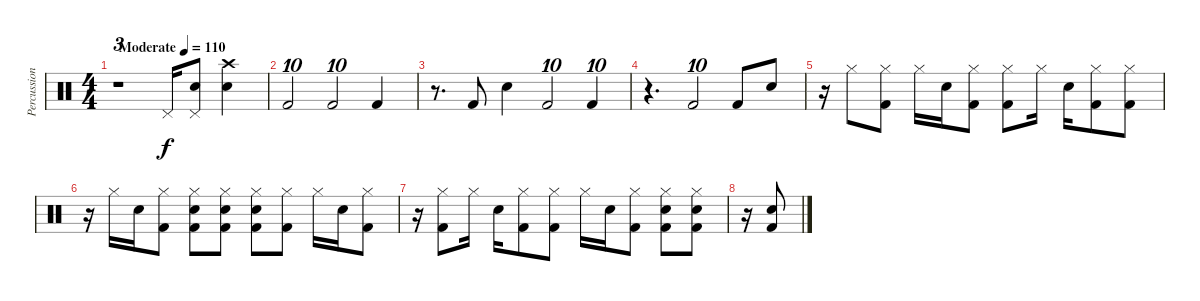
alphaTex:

\track ("Percussion" "Percussion") {instrument percussion}
\staff {score}
\articulation defaults
\ts (4 4)
\tempo (110 "Moderate")
\clef neutral
\ks c
r.1{tu (3 2) dy f} "Pedal Hi-Hat (hit)".16 ("Electric Snare (hit)" "Pedal Hi-Hat (hit)").8 ("Electric Snare (hit)" "Crash high (hit)").4 |
"Kick (hit) 2".2{tu (10 8)} "Kick (hit) 2".2{tu (10 8)} "Kick (hit) 2".4 |
r.8{d} "Kick (hit) 2".8 "Electric Snare (hit)".4 "Kick (hit) 2".2{tu (10 8)} "Kick (hit) 2".4{tu (10 8)} |
r.4{d} "Kick (hit) 2".2{tu (10 8)} "Kick (hit) 2".8 "Electric Snare (hit)".8 |
r.16 "Hi-Hat (closed)".8 ("Hi-Hat (closed)" "Kick (hit) 2").8 "Hi-Hat (closed)".16 "Electric Snare (hit)".16 ("Hi-Hat (closed)" "Kick (hit) 2").8 ("Hi-Hat (closed)" "Kick (hit) 2").8 "Hi-Hat (closed)".16 "Electric Snare (hit)".16 ("Hi-Hat (closed)" "Kick (hit) 2").8 ("Hi-Hat (closed)" "Kick (hit) 2").8 |
r.16 "Hi-Hat (closed)".16 "Electric Snare (hit)".16 ("Hi-Hat (closed)" "Kick (hit) 2").8 ("Hi-Hat (closed)" "Kick (hit) 2" "Electric Snare (hit)").8 ("Hi-Hat (closed)" "Kick (hit) 2" "Electric Snare (hit)").8 ("Hi-Hat (closed)" "Kick (hit) 2" "Electric Snare (hit)").8 ("Hi-Hat (closed)" "Kick (hit) 2").8 "Hi-Hat (closed)".16 "Electric Snare (hit)".16 ("Hi-Hat (closed)" "Kick (hit) 2").8 |
r.16 ("Hi-Hat (closed)" "Kick (hit) 2").8 "Hi-Hat (closed)".16 "Electric Snare (hit)".16 ("Hi-Hat (closed)" "Kick (hit) 2").8 ("Hi-Hat (closed)" "Kick (hit) 2").8 "Hi-Hat (closed)".16 "Electric Snare (hit)".16 ("Hi-Hat (closed)" "Kick (hit) 2").8 ("Hi-Hat (closed)" "Kick (hit) 2" "Electric Snare (hit)").8 ("Hi-Hat (closed)" "Kick (hit) 2" "Electric Snare (hit)").8 |
r.16 ("Kick (hit) 2" "Electric Snare (hit)").8
